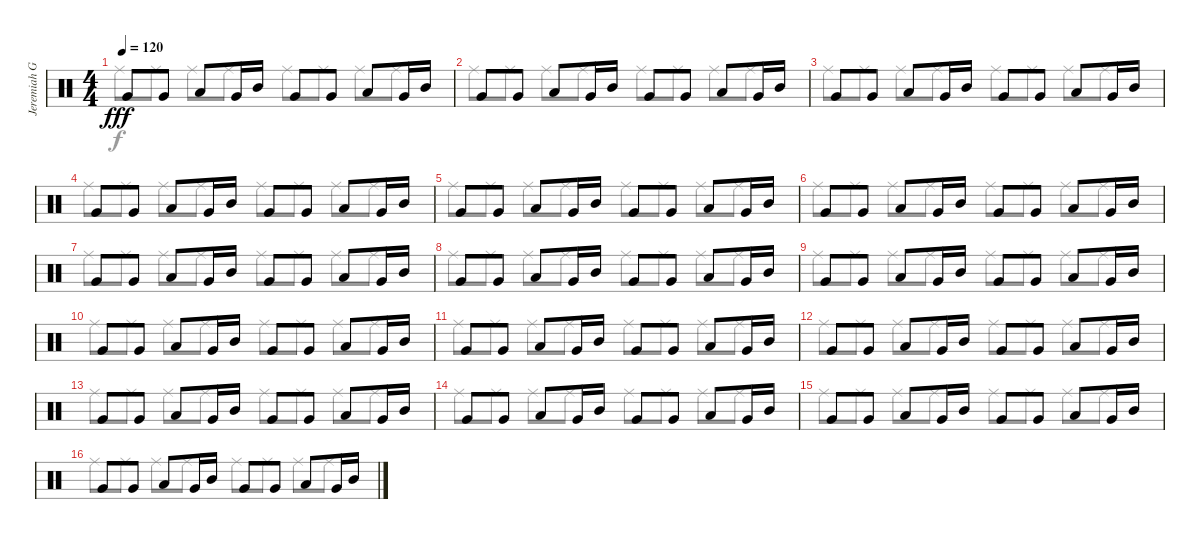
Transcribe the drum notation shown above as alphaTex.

\track ("Jeremiah Green" "Jeremiah G") {instrument percussion}
\staff {score}
\articulation defaults
\voice
\ts (4 4)
\tempo 120
\clef neutral
\ks c "Very Low Tom (hit)".8{dy fff} "Very Low Tom (hit)".8 "Low Tom (hit)".8 "Very Low Tom (hit)".16 "Mid Tom (hit)".16 "Very Low Tom (hit)".8 "Very Low Tom (hit)".8 "Low Tom (hit)".8 "Very Low Tom (hit)".16 "Mid Tom (hit)".16
|
"Very Low Tom (hit)".8 "Very Low Tom (hit)".8 "Low Tom (hit)".8 "Very Low Tom (hit)".16 "Mid Tom (hit)".16 "Very Low Tom (hit)".8 "Very Low Tom (hit)".8 "Low Tom (hit)".8 "Very Low Tom (hit)".16 "Mid Tom (hit)".16 |
"Very Low Tom (hit)".8 "Very Low Tom (hit)".8 "Low Tom (hit)".8 "Very Low Tom (hit)".16 "Mid Tom (hit)".16 "Very Low Tom (hit)".8 "Very Low Tom (hit)".8 "Low Tom (hit)".8 "Very Low Tom (hit)".16 "Mid Tom (hit)".16 |
"Very Low Tom (hit)".8 "Very Low Tom (hit)".8 "Low Tom (hit)".8 "Very Low Tom (hit)".16 "Mid Tom (hit)".16 "Very Low Tom (hit)".8 "Very Low Tom (hit)".8 "Low Tom (hit)".8 "Very Low Tom (hit)".16 "Mid Tom (hit)".16 |
"Very Low Tom (hit)".8 "Very Low Tom (hit)".8 "Low Tom (hit)".8 "Very Low Tom (hit)".16 "Mid Tom (hit)".16 "Very Low Tom (hit)".8 "Very Low Tom (hit)".8 "Low Tom (hit)".8 "Very Low Tom (hit)".16 "Mid Tom (hit)".16 |
"Very Low Tom (hit)".8 "Very Low Tom (hit)".8 "Low Tom (hit)".8 "Very Low Tom (hit)".16 "Mid Tom (hit)".16 "Very Low Tom (hit)".8 "Very Low Tom (hit)".8 "Low Tom (hit)".8 "Very Low Tom (hit)".16 "Mid Tom (hit)".16 |
"Very Low Tom (hit)".8 "Very Low Tom (hit)".8 "Low Tom (hit)".8 "Very Low Tom (hit)".16 "Mid Tom (hit)".16 "Very Low Tom (hit)".8 "Very Low Tom (hit)".8 "Low Tom (hit)".8 "Very Low Tom (hit)".16 "Mid Tom (hit)".16 |
"Very Low Tom (hit)".8 "Very Low Tom (hit)".8 "Low Tom (hit)".8 "Very Low Tom (hit)".16 "Mid Tom (hit)".16 "Very Low Tom (hit)".8 "Very Low Tom (hit)".8 "Low Tom (hit)".8 "Very Low Tom (hit)".16 "Mid Tom (hit)".16 |
"Very Low Tom (hit)".8 "Very Low Tom (hit)".8 "Low Tom (hit)".8 "Very Low Tom (hit)".16 "Mid Tom (hit)".16 "Very Low Tom (hit)".8 "Very Low Tom (hit)".8 "Low Tom (hit)".8 "Very Low Tom (hit)".16 "Mid Tom (hit)".16 |
"Very Low Tom (hit)".8 "Very Low Tom (hit)".8 "Low Tom (hit)".8 "Very Low Tom (hit)".16 "Mid Tom (hit)".16 "Very Low Tom (hit)".8 "Very Low Tom (hit)".8 "Low Tom (hit)".8 "Very Low Tom (hit)".16 "Mid Tom (hit)".16 |
"Very Low Tom (hit)".8 "Very Low Tom (hit)".8 "Low Tom (hit)".8 "Very Low Tom (hit)".16 "Mid Tom (hit)".16 "Very Low Tom (hit)".8 "Very Low Tom (hit)".8 "Low Tom (hit)".8 "Very Low Tom (hit)".16 "Mid Tom (hit)".16 |
"Very Low Tom (hit)".8 "Very Low Tom (hit)".8 "Low Tom (hit)".8 "Very Low Tom (hit)".16 "Mid Tom (hit)".16 "Very Low Tom (hit)".8 "Very Low Tom (hit)".8 "Low Tom (hit)".8 "Very Low Tom (hit)".16 "Mid Tom (hit)".16 |
"Very Low Tom (hit)".8 "Very Low Tom (hit)".8 "Low Tom (hit)".8 "Very Low Tom (hit)".16 "Mid Tom (hit)".16 "Very Low Tom (hit)".8 "Very Low Tom (hit)".8 "Low Tom (hit)".8 "Very Low Tom (hit)".16 "Mid Tom (hit)".16 |
"Very Low Tom (hit)".8 "Very Low Tom (hit)".8 "Low Tom (hit)".8 "Very Low Tom (hit)".16 "Mid Tom (hit)".16 "Very Low Tom (hit)".8 "Very Low Tom (hit)".8 "Low Tom (hit)".8 "Very Low Tom (hit)".16 "Mid Tom (hit)".16 |
"Very Low Tom (hit)".8 "Very Low Tom (hit)".8 "Low Tom (hit)".8 "Very Low Tom (hit)".16 "Mid Tom (hit)".16 "Very Low Tom (hit)".8 "Very Low Tom (hit)".8 "Low Tom (hit)".8 "Very Low Tom (hit)".16 "Mid Tom (hit)".16 |
"Very Low Tom (hit)".8 "Very Low Tom (hit)".8 "Low Tom (hit)".8 "Very Low Tom (hit)".16 "Mid Tom (hit)".16 "Very Low Tom (hit)".8 "Very Low Tom (hit)".8 "Low Tom (hit)".8 "Very Low Tom (hit)".16 "Mid Tom (hit)".16
\voice
\clef neutral
\ottava regular
\simile none
\ks c "Ride (middle)".8{dy f} "Ride (middle)".8 "Ride (middle)".8 "Ride (middle)".8 "Ride (middle)".8 "Ride (middle)".8 "Ride (middle)".8 "Ride (middle)".8
|
"Ride (middle)".8 "Ride (middle)".8 "Ride (middle)".8 "Ride (middle)".8 "Ride (middle)".8 "Ride (middle)".8 "Ride (middle)".8 "Ride (middle)".8 |
"Ride (middle)".8 "Ride (middle)".8 "Ride (middle)".8 "Ride (middle)".8 "Ride (middle)".8 "Ride (middle)".8 "Ride (middle)".8 "Ride (middle)".8 |
"Ride (middle)".8 "Ride (middle)".8 "Ride (middle)".8 "Ride (middle)".8 "Ride (middle)".8 "Ride (middle)".8 "Ride (middle)".8 "Ride (middle)".8 |
"Ride (middle)".8 "Ride (middle)".8 "Ride (middle)".8 "Ride (middle)".8 "Ride (middle)".8 "Ride (middle)".8 "Ride (middle)".8 "Ride (middle)".8 |
"Ride (middle)".8 "Ride (middle)".8 "Ride (middle)".8 "Ride (middle)".8 "Ride (middle)".8 "Ride (middle)".8 "Ride (middle)".8 "Ride (middle)".8 |
"Ride (middle)".8 "Ride (middle)".8 "Ride (middle)".8 "Ride (middle)".8 "Ride (middle)".8 "Ride (middle)".8 "Ride (middle)".8 "Ride (middle)".8 |
"Ride (middle)".8 "Ride (middle)".8 "Ride (middle)".8 "Ride (middle)".8 "Ride (middle)".8 "Ride (middle)".8 "Ride (middle)".8 "Ride (middle)".8 |
"Ride (middle)".8 "Ride (middle)".8 "Ride (middle)".8 "Ride (middle)".8 "Ride (middle)".8 "Ride (middle)".8 "Ride (middle)".8 "Ride (middle)".8 |
"Ride (middle)".8 "Ride (middle)".8 "Ride (middle)".8 "Ride (middle)".8 "Ride (middle)".8 "Ride (middle)".8 "Ride (middle)".8 "Ride (middle)".8 |
"Ride (middle)".8 "Ride (middle)".8 "Ride (middle)".8 "Ride (middle)".8 "Ride (middle)".8 "Ride (middle)".8 "Ride (middle)".8 "Ride (middle)".8 |
"Ride (middle)".8 "Ride (middle)".8 "Ride (middle)".8 "Ride (middle)".8 "Ride (middle)".8 "Ride (middle)".8 "Ride (middle)".8 "Ride (middle)".8 |
"Ride (middle)".8 "Ride (middle)".8 "Ride (middle)".8 "Ride (middle)".8 "Ride (middle)".8 "Ride (middle)".8 "Ride (middle)".8 "Ride (middle)".8 |
"Ride (middle)".8 "Ride (middle)".8 "Ride (middle)".8 "Ride (middle)".8 "Ride (middle)".8 "Ride (middle)".8 "Ride (middle)".8 "Ride (middle)".8 |
"Ride (middle)".8 "Ride (middle)".8 "Ride (middle)".8 "Ride (middle)".8 "Ride (middle)".8 "Ride (middle)".8 "Ride (middle)".8 "Ride (middle)".8 |
"Ride (middle)".8 "Ride (middle)".8 "Ride (middle)".8 "Ride (middle)".8 "Ride (middle)".8 "Ride (middle)".8 "Ride (middle)".8 "Ride (middle)".8
